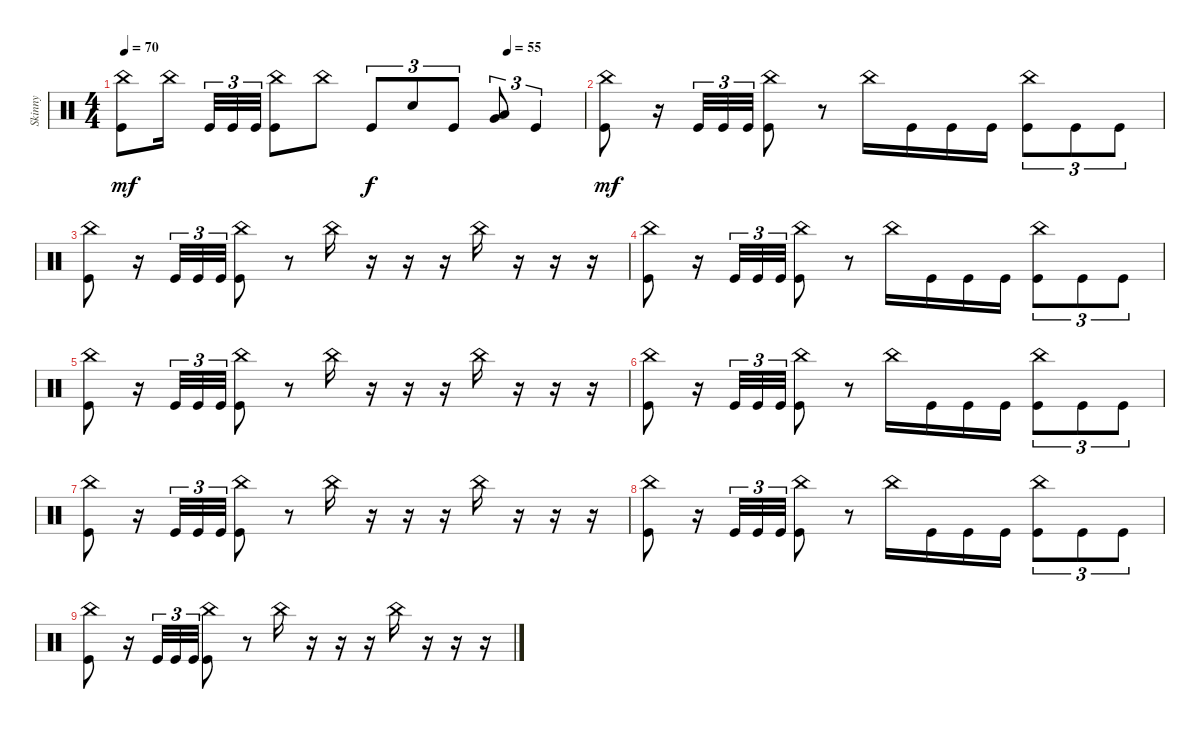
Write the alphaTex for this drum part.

\track ("Skinny" "Skinny") {instrument percussion}
\staff {score}
\articulation defaults
\ts (4 4)
\tempo 70
\tempo (55 0.8333333333333334)
\clef neutral
\ks c
("Kick (hit)" "China (hit)").8{dy mf} "China (hit)".16 "Kick (hit)".32{tu (3 2)} "Kick (hit)".32{tu (3 2)} "Kick (hit)".32{tu (3 2)} ("Kick (hit)" "China (hit)").8 "China (hit)".8 "Kick (hit)".8{tu (3 2) dy f} "Snare (hit) 2".8{tu (3 2)} "Kick (hit)".8{tu (3 2)} ("Low Tom (hit)" "Very Low Tom (hit)").8{tu (3 2)} "Kick (hit)".4{tu (3 2)} |
("Kick (hit)" "China (hit)").8{dy mf} r.16 "Kick (hit)".32{tu (3 2)} "Kick (hit)".32{tu (3 2)} "Kick (hit)".32{tu (3 2)} ("Kick (hit)" "China (hit)").8 r.8 "China (hit)".16 "Kick (hit)".16 "Kick (hit)".16 "Kick (hit)".16 ("China (hit)" "Kick (hit)").8{tu (3 2)} "Kick (hit)".8{tu (3 2)} "Kick (hit)".8{tu (3 2)} |
("Kick (hit)" "China (hit)").8 r.16 "Kick (hit)".32{tu (3 2)} "Kick (hit)".32{tu (3 2)} "Kick (hit)".32{tu (3 2)} ("Kick (hit)" "China (hit)").8 r.8 "China (hit)".16 r.16 r.16 r.16 "China (hit)".16 r.16 r.16 r.16 |
("Kick (hit)" "China (hit)").8 r.16 "Kick (hit)".32{tu (3 2)} "Kick (hit)".32{tu (3 2)} "Kick (hit)".32{tu (3 2)} ("Kick (hit)" "China (hit)").8 r.8 "China (hit)".16 "Kick (hit)".16 "Kick (hit)".16 "Kick (hit)".16 ("China (hit)" "Kick (hit)").8{tu (3 2)} "Kick (hit)".8{tu (3 2)} "Kick (hit)".8{tu (3 2)} |
("Kick (hit)" "China (hit)").8 r.16 "Kick (hit)".32{tu (3 2)} "Kick (hit)".32{tu (3 2)} "Kick (hit)".32{tu (3 2)} ("Kick (hit)" "China (hit)").8 r.8 "China (hit)".16 r.16 r.16 r.16 "China (hit)".16 r.16 r.16 r.16 |
("Kick (hit)" "China (hit)").8 r.16 "Kick (hit)".32{tu (3 2)} "Kick (hit)".32{tu (3 2)} "Kick (hit)".32{tu (3 2)} ("Kick (hit)" "China (hit)").8 r.8 "China (hit)".16 "Kick (hit)".16 "Kick (hit)".16 "Kick (hit)".16 ("China (hit)" "Kick (hit)").8{tu (3 2)} "Kick (hit)".8{tu (3 2)} "Kick (hit)".8{tu (3 2)} |
("Kick (hit)" "China (hit)").8 r.16 "Kick (hit)".32{tu (3 2)} "Kick (hit)".32{tu (3 2)} "Kick (hit)".32{tu (3 2)} ("Kick (hit)" "China (hit)").8 r.8 "China (hit)".16 r.16 r.16 r.16 "China (hit)".16 r.16 r.16 r.16 |
("Kick (hit)" "China (hit)").8 r.16 "Kick (hit)".32{tu (3 2)} "Kick (hit)".32{tu (3 2)} "Kick (hit)".32{tu (3 2)} ("Kick (hit)" "China (hit)").8 r.8 "China (hit)".16 "Kick (hit)".16 "Kick (hit)".16 "Kick (hit)".16 ("China (hit)" "Kick (hit)").8{tu (3 2)} "Kick (hit)".8{tu (3 2)} "Kick (hit)".8{tu (3 2)} |
("Kick (hit)" "China (hit)").8 r.16 "Kick (hit)".32{tu (3 2)} "Kick (hit)".32{tu (3 2)} "Kick (hit)".32{tu (3 2)} ("Kick (hit)" "China (hit)").8 r.8 "China (hit)".16 r.16 r.16 r.16 "China (hit)".16 r.16 r.16 r.16
